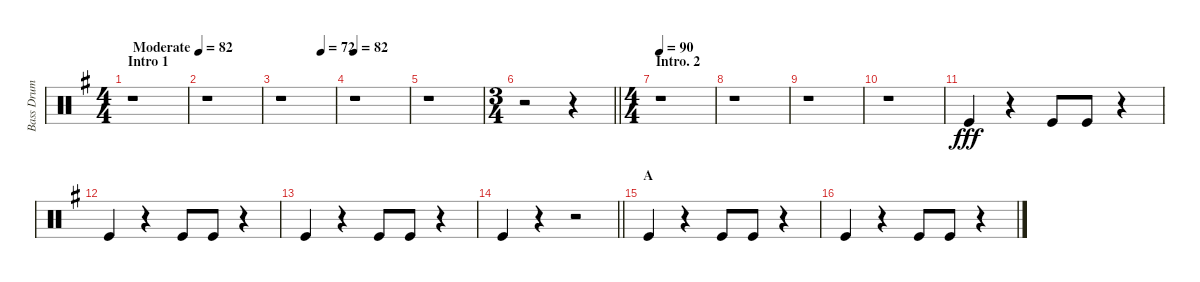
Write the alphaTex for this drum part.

\track ("Bass Drum" "Bass Drum") {instrument percussion}
\staff {score}
\articulation defaults
\ts (4 4)
\section ("" "Intro 1")
\tempo (82 "Moderate")
\clef neutral
\ks g
r.1{dy fff} |
r.1 |
\tempo (72 0.75)
r.1 |
\tempo 82
r.1 |
r.1 |
\ts (3 4)
\barLineRight lightlight
r.2 r.4 |
\ts (4 4)
\section ("" "Intro. 2")
\tempo 90
r.1 |
r.1 |
r.1 |
r.1 |
"Kick (hit)".4 r.4 "Kick (hit)".8 "Kick (hit)".8 r.4 |
"Kick (hit)".4 r.4 "Kick (hit)".8 "Kick (hit)".8 r.4 |
"Kick (hit)".4 r.4 "Kick (hit)".8 "Kick (hit)".8 r.4 |
\barLineRight lightlight "Kick (hit)".4
r.4 r.2 |
\section ("" "A")
"Kick (hit)".4 r.4 "Kick (hit)".8 "Kick (hit)".8 r.4 |
"Kick (hit)".4 r.4 "Kick (hit)".8 "Kick (hit)".8 r.4
